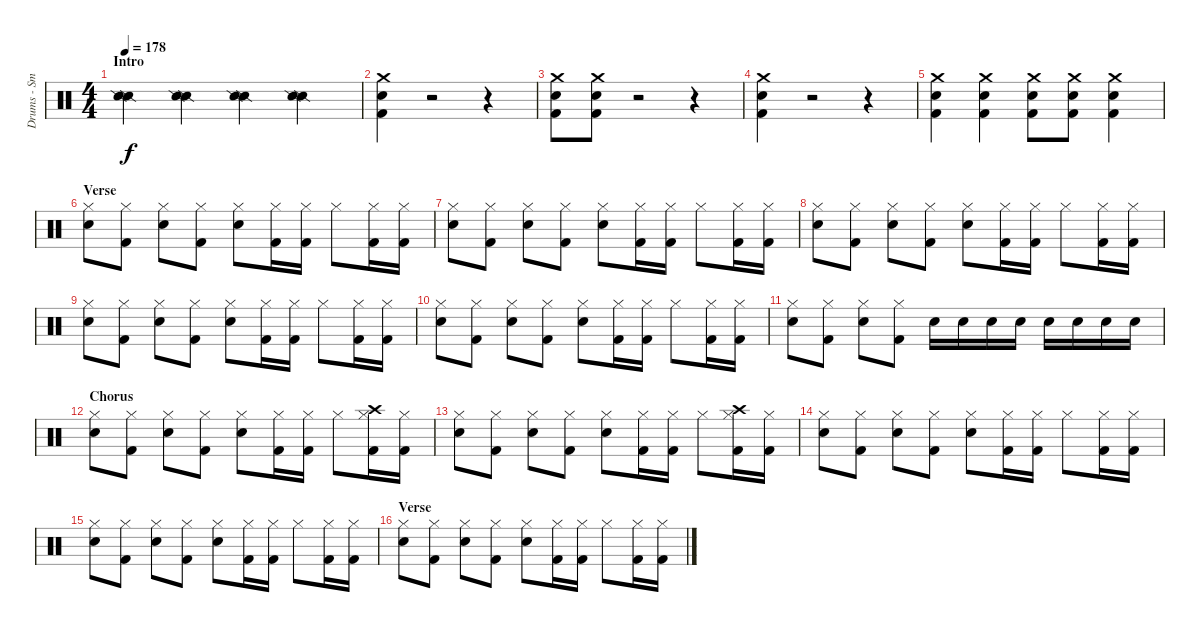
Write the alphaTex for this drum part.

\track ("Drums - Smelly" "Drums - Sm") {instrument percussion}
\staff {score}
\articulation defaults
\ts (4 4)
\section ("" "Intro")
\tempo 178
\clef neutral
\ks c
("Snare (side stick) 2" "Snare (side stick) 2").4{dy f} ("Snare (side stick) 2" "Snare (side stick) 2").4 ("Snare (side stick) 2" "Snare (side stick) 2").4 ("Snare (side stick) 2" "Snare (side stick) 2").4 |
("Crash medium (hit)" "Electric Snare (hit)" "Kick (hit) 2").4 r.2 r.4 |
("Crash medium (hit)" "Electric Snare (hit)" "Kick (hit) 2").8 ("Crash medium (hit)" "Electric Snare (hit)" "Kick (hit) 2").8 r.2 r.4 |
("Crash medium (hit)" "Electric Snare (hit)" "Kick (hit) 2").4 r.2 r.4 |
("Crash medium (hit)" "Electric Snare (hit)" "Kick (hit) 2").4 ("Crash medium (hit)" "Electric Snare (hit)" "Kick (hit) 2").4 ("Crash medium (hit)" "Electric Snare (hit)" "Kick (hit) 2").8 ("Crash medium (hit)" "Electric Snare (hit)" "Kick (hit) 2").8 ("Crash medium (hit)" "Electric Snare (hit)" "Kick (hit) 2").4 |
\section ("" "Verse")
("Hi-Hat (closed)" "Electric Snare (hit)").8 ("Hi-Hat (closed)" "Kick (hit) 2").8 ("Hi-Hat (closed)" "Electric Snare (hit)").8 ("Hi-Hat (closed)" "Kick (hit) 2").8 ("Hi-Hat (closed)" "Electric Snare (hit)").8 ("Hi-Hat (closed)" "Kick (hit) 2").16 ("Hi-Hat (closed)" "Kick (hit) 2").16 "Hi-Hat (closed)".8 ("Hi-Hat (closed)" "Kick (hit) 2").16 ("Hi-Hat (closed)" "Kick (hit) 2").16 |
("Hi-Hat (closed)" "Electric Snare (hit)").8 ("Hi-Hat (closed)" "Kick (hit) 2").8 ("Hi-Hat (closed)" "Electric Snare (hit)").8 ("Hi-Hat (closed)" "Kick (hit) 2").8 ("Hi-Hat (closed)" "Electric Snare (hit)").8 ("Hi-Hat (closed)" "Kick (hit) 2").16 ("Hi-Hat (closed)" "Kick (hit) 2").16 "Hi-Hat (closed)".8 ("Hi-Hat (closed)" "Kick (hit) 2").16 ("Hi-Hat (closed)" "Kick (hit) 2").16 |
("Hi-Hat (closed)" "Electric Snare (hit)").8 ("Hi-Hat (closed)" "Kick (hit) 2").8 ("Hi-Hat (closed)" "Electric Snare (hit)").8 ("Hi-Hat (closed)" "Kick (hit) 2").8 ("Hi-Hat (closed)" "Electric Snare (hit)").8 ("Hi-Hat (closed)" "Kick (hit) 2").16 ("Hi-Hat (closed)" "Kick (hit) 2").16 "Hi-Hat (closed)".8 ("Hi-Hat (closed)" "Kick (hit) 2").16 ("Hi-Hat (closed)" "Kick (hit) 2").16 |
("Hi-Hat (closed)" "Electric Snare (hit)").8 ("Hi-Hat (closed)" "Kick (hit) 2").8 ("Hi-Hat (closed)" "Electric Snare (hit)").8 ("Hi-Hat (closed)" "Kick (hit) 2").8 ("Hi-Hat (closed)" "Electric Snare (hit)").8 ("Hi-Hat (closed)" "Kick (hit) 2").16 ("Hi-Hat (closed)" "Kick (hit) 2").16 "Hi-Hat (closed)".8 ("Hi-Hat (closed)" "Kick (hit) 2").16 ("Hi-Hat (closed)" "Kick (hit) 2").16 |
("Hi-Hat (closed)" "Electric Snare (hit)").8 ("Hi-Hat (closed)" "Kick (hit) 2").8 ("Hi-Hat (closed)" "Electric Snare (hit)").8 ("Hi-Hat (closed)" "Kick (hit) 2").8 ("Hi-Hat (closed)" "Electric Snare (hit)").8 ("Hi-Hat (closed)" "Kick (hit) 2").16 ("Hi-Hat (closed)" "Kick (hit) 2").16 "Hi-Hat (closed)".8 ("Hi-Hat (closed)" "Kick (hit) 2").16 ("Hi-Hat (closed)" "Kick (hit) 2").16 |
("Hi-Hat (closed)" "Electric Snare (hit)").8 ("Hi-Hat (closed)" "Kick (hit) 2").8 ("Hi-Hat (closed)" "Electric Snare (hit)").8 ("Hi-Hat (closed)" "Kick (hit) 2").8 "Electric Snare (hit)".16 "Electric Snare (hit)".16 "Electric Snare (hit)".16 "Electric Snare (hit)".16 "Electric Snare (hit)".16 "Electric Snare (hit)".16 "Electric Snare (hit)".16 "Electric Snare (hit)".16 |
\section ("" "Chorus")
("Hi-Hat (closed)" "Electric Snare (hit)").8 ("Hi-Hat (closed)" "Kick (hit) 2").8 ("Hi-Hat (closed)" "Electric Snare (hit)").8 ("Hi-Hat (closed)" "Kick (hit) 2").8 ("Hi-Hat (closed)" "Electric Snare (hit)").8 ("Hi-Hat (closed)" "Kick (hit) 2").16 ("Hi-Hat (closed)" "Kick (hit) 2").16 "Hi-Hat (closed)".8 ("Hi-Hat (closed)" "Crash high (hit)" "Kick (hit) 2").16 ("Hi-Hat (closed)" "Kick (hit) 2").16 |
("Hi-Hat (closed)" "Electric Snare (hit)").8 ("Hi-Hat (closed)" "Kick (hit) 2").8 ("Hi-Hat (closed)" "Electric Snare (hit)").8 ("Hi-Hat (closed)" "Kick (hit) 2").8 ("Hi-Hat (closed)" "Electric Snare (hit)").8 ("Hi-Hat (closed)" "Kick (hit) 2").16 ("Hi-Hat (closed)" "Kick (hit) 2").16 "Hi-Hat (closed)".8 ("Hi-Hat (closed)" "Crash high (hit)" "Kick (hit) 2").16 ("Hi-Hat (closed)" "Kick (hit) 2").16 |
("Hi-Hat (closed)" "Electric Snare (hit)").8 ("Hi-Hat (closed)" "Kick (hit) 2").8 ("Hi-Hat (closed)" "Electric Snare (hit)").8 ("Hi-Hat (closed)" "Kick (hit) 2").8 ("Hi-Hat (closed)" "Electric Snare (hit)").8 ("Hi-Hat (closed)" "Kick (hit) 2").16 ("Hi-Hat (closed)" "Kick (hit) 2").16 "Hi-Hat (closed)".8 ("Hi-Hat (closed)" "Kick (hit) 2").16 ("Hi-Hat (closed)" "Kick (hit) 2").16 |
("Hi-Hat (closed)" "Electric Snare (hit)").8 ("Hi-Hat (closed)" "Kick (hit) 2").8 ("Hi-Hat (closed)" "Electric Snare (hit)").8 ("Hi-Hat (closed)" "Kick (hit) 2").8 ("Hi-Hat (closed)" "Electric Snare (hit)").8 ("Hi-Hat (closed)" "Kick (hit) 2").16 ("Hi-Hat (closed)" "Kick (hit) 2").16 "Hi-Hat (closed)".8 ("Hi-Hat (closed)" "Kick (hit) 2").16 ("Hi-Hat (closed)" "Kick (hit) 2").16 |
\section ("" "Verse")
("Hi-Hat (closed)" "Electric Snare (hit)").8 ("Hi-Hat (closed)" "Kick (hit) 2").8 ("Hi-Hat (closed)" "Electric Snare (hit)").8 ("Hi-Hat (closed)" "Kick (hit) 2").8 ("Hi-Hat (closed)" "Electric Snare (hit)").8 ("Hi-Hat (closed)" "Kick (hit) 2").16 ("Hi-Hat (closed)" "Kick (hit) 2").16 "Hi-Hat (closed)".8 ("Hi-Hat (closed)" "Kick (hit) 2").16 ("Hi-Hat (closed)" "Kick (hit) 2").16
